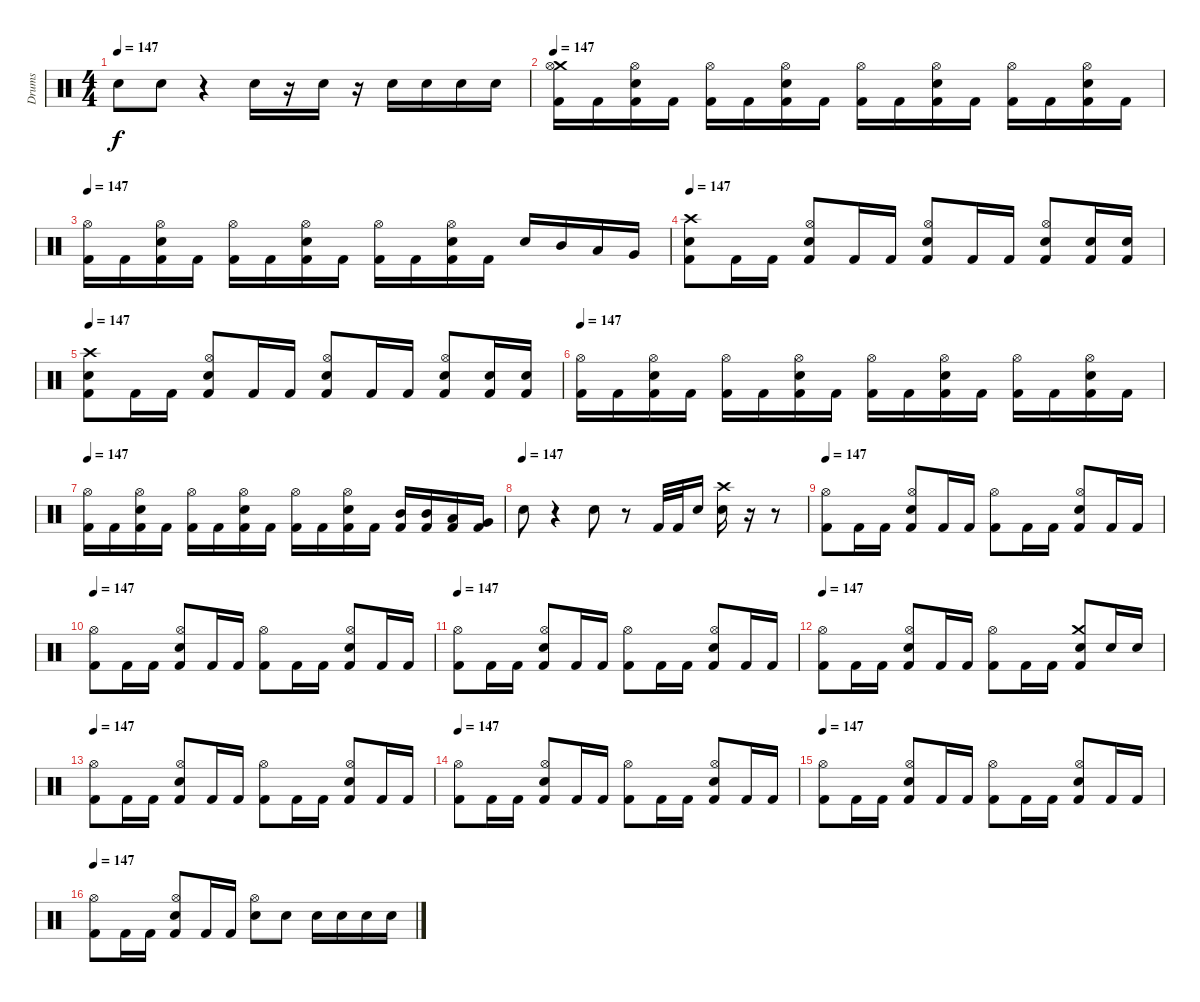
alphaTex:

\track ("Drums" "Drums") {instrument percussion}
\staff {score}
\articulation defaults
\ts (4 4)
\tempo 147
\clef neutral
\ks c "Electric Snare (hit)".8{dy f} "Electric Snare (hit)".8
r.4 "Electric Snare (hit)".16 r.16 "Electric Snare (hit)".16 r.16 "Electric Snare (hit)".16 "Electric Snare (hit)".16 "Electric Snare (hit)".16 "Electric Snare (hit)".16 |
\tempo 147
("Crash medium (hit)" "Hi-Hat (open)" "Kick (hit) 2").16 "Kick (hit) 2".16 ("Hi-Hat (open)" "Electric Snare (hit)" "Kick (hit) 2").16 "Kick (hit) 2".16 ("Hi-Hat (open)" "Kick (hit) 2").16 "Kick (hit) 2".16 ("Hi-Hat (open)" "Electric Snare (hit)" "Kick (hit) 2").16 "Kick (hit) 2".16 ("Hi-Hat (open)" "Kick (hit) 2").16 "Kick (hit) 2".16 ("Hi-Hat (open)" "Electric Snare (hit)" "Kick (hit) 2").16 "Kick (hit) 2".16 ("Hi-Hat (open)" "Kick (hit) 2").16 "Kick (hit) 2".16 ("Hi-Hat (open)" "Electric Snare (hit)" "Kick (hit) 2").16 "Kick (hit) 2".16 |
\tempo 147
("Hi-Hat (open)" "Kick (hit) 2").16 "Kick (hit) 2".16 ("Hi-Hat (open)" "Electric Snare (hit)" "Kick (hit) 2").16 "Kick (hit) 2".16 ("Hi-Hat (open)" "Kick (hit) 2").16 "Kick (hit) 2".16 ("Hi-Hat (open)" "Electric Snare (hit)" "Kick (hit) 2").16 "Kick (hit) 2".16 ("Hi-Hat (open)" "Kick (hit) 2").16 "Kick (hit) 2".16 ("Hi-Hat (open)" "Electric Snare (hit)" "Kick (hit) 2").16 "Kick (hit) 2".16 "Snare (hit) 2".16 "Mid Tom (hit)".16 "Low Tom (hit)".16 "Very Low Tom (hit)".16 |
\tempo 147
("Crash high (hit)" "Electric Snare (hit)" "Kick (hit) 2").8 "Kick (hit) 2".16 "Kick (hit) 2".16 ("Hi-Hat (open)" "Electric Snare (hit)" "Kick (hit) 2").8 "Kick (hit) 2".16 "Kick (hit) 2".16 ("Hi-Hat (open)" "Electric Snare (hit)" "Kick (hit) 2").8 "Kick (hit) 2".16 "Kick (hit) 2".16 ("Hi-Hat (open)" "Electric Snare (hit)" "Kick (hit) 2").8 ("Electric Snare (hit)" "Kick (hit) 2").16 ("Electric Snare (hit)" "Kick (hit) 2").16 |
\tempo 147
("Crash high (hit)" "Electric Snare (hit)" "Kick (hit) 2").8 "Kick (hit) 2".16 "Kick (hit) 2".16 ("Hi-Hat (open)" "Electric Snare (hit)" "Kick (hit) 2").8 "Kick (hit) 2".16 "Kick (hit) 2".16 ("Hi-Hat (open)" "Electric Snare (hit)" "Kick (hit) 2").8 "Kick (hit) 2".16 "Kick (hit) 2".16 ("Hi-Hat (open)" "Electric Snare (hit)" "Kick (hit) 2").8 ("Electric Snare (hit)" "Kick (hit) 2").16 ("Electric Snare (hit)" "Kick (hit) 2").16 |
\tempo 147
("Hi-Hat (open)" "Kick (hit) 2").16 "Kick (hit) 2".16 ("Hi-Hat (open)" "Electric Snare (hit)" "Kick (hit) 2").16 "Kick (hit) 2".16 ("Hi-Hat (open)" "Kick (hit) 2").16 "Kick (hit) 2".16 ("Hi-Hat (open)" "Electric Snare (hit)" "Kick (hit) 2").16 "Kick (hit) 2".16 ("Hi-Hat (open)" "Kick (hit) 2").16 "Kick (hit) 2".16 ("Hi-Hat (open)" "Electric Snare (hit)" "Kick (hit) 2").16 "Kick (hit) 2".16 ("Hi-Hat (open)" "Kick (hit) 2").16 "Kick (hit) 2".16 ("Hi-Hat (open)" "Electric Snare (hit)" "Kick (hit) 2").16 "Kick (hit) 2".16 |
\tempo 147
("Hi-Hat (open)" "Kick (hit) 2").16 "Kick (hit) 2".16 ("Hi-Hat (open)" "Electric Snare (hit)" "Kick (hit) 2").16 "Kick (hit) 2".16 ("Hi-Hat (open)" "Kick (hit) 2").16 "Kick (hit) 2".16 ("Hi-Hat (open)" "Electric Snare (hit)" "Kick (hit) 2").16 "Kick (hit) 2".16 ("Hi-Hat (open)" "Kick (hit) 2").16 "Kick (hit) 2".16 ("Hi-Hat (open)" "Electric Snare (hit)" "Kick (hit) 2").16 "Kick (hit) 2".16 ("Mid Tom (hit)" "Kick (hit) 2").16 ("Mid Tom (hit)" "Kick (hit) 2").16 ("Low Tom (hit)" "Kick (hit) 2").16 ("Very Low Tom (hit)" "Kick (hit) 2").16 |
\tempo (147)
"Electric Snare (hit)".8 r.4 "Electric Snare (hit)".8 r.8 "Kick (hit) 2".32 "Kick (hit) 2".32 "Snare (hit)".16 ("Crash high (hit)" "Electric Snare (hit)").16 r.16 r.8 |
\tempo 147
("Hi-Hat (open)" "Kick (hit) 2").8 "Kick (hit) 2".16 "Kick (hit) 2".16 ("Hi-Hat (open)" "Electric Snare (hit)" "Kick (hit) 2").8 "Kick (hit) 2".16 "Kick (hit) 2".16 ("Hi-Hat (open)" "Kick (hit) 2").8 "Kick (hit) 2".16 "Kick (hit) 2".16 ("Hi-Hat (open)" "Electric Snare (hit)" "Kick (hit) 2").8 "Kick (hit) 2".16 "Kick (hit) 2".16 |
\tempo 147
("Hi-Hat (open)" "Kick (hit) 2").8 "Kick (hit) 2".16 "Kick (hit) 2".16 ("Hi-Hat (open)" "Electric Snare (hit)" "Kick (hit) 2").8 "Kick (hit) 2".16 "Kick (hit) 2".16 ("Hi-Hat (open)" "Kick (hit) 2").8 "Kick (hit) 2".16 "Kick (hit) 2".16 ("Hi-Hat (open)" "Electric Snare (hit)" "Kick (hit) 2").8 "Kick (hit) 2".16 "Kick (hit) 2".16 |
\tempo 147
("Hi-Hat (open)" "Kick (hit) 2").8 "Kick (hit) 2".16 "Kick (hit) 2".16 ("Hi-Hat (open)" "Electric Snare (hit)" "Kick (hit) 2").8 "Kick (hit) 2".16 "Kick (hit) 2".16 ("Hi-Hat (open)" "Kick (hit) 2").8 "Kick (hit) 2".16 "Kick (hit) 2".16 ("Hi-Hat (open)" "Electric Snare (hit)" "Kick (hit) 2").8 "Kick (hit) 2".16 "Kick (hit) 2".16 |
\tempo 147
("Hi-Hat (open)" "Kick (hit) 2").8 "Kick (hit) 2".16 "Kick (hit) 2".16 ("Hi-Hat (open)" "Electric Snare (hit)" "Kick (hit) 2").8 "Kick (hit) 2".16 "Kick (hit) 2".16 ("Hi-Hat (open)" "Kick (hit) 2").8 "Kick (hit) 2".16 "Kick (hit) 2".16 ("Crash medium (hit)" "Electric Snare (hit)" "Kick (hit) 2").8 "Electric Snare (hit)".16 "Electric Snare (hit)".16 |
\tempo 147
("Hi-Hat (open)" "Kick (hit) 2").8 "Kick (hit) 2".16 "Kick (hit) 2".16 ("Hi-Hat (open)" "Electric Snare (hit)" "Kick (hit) 2").8 "Kick (hit) 2".16 "Kick (hit) 2".16 ("Hi-Hat (open)" "Kick (hit) 2").8 "Kick (hit) 2".16 "Kick (hit) 2".16 ("Hi-Hat (open)" "Electric Snare (hit)" "Kick (hit) 2").8 "Kick (hit) 2".16 "Kick (hit) 2".16 |
\tempo 147
("Hi-Hat (open)" "Kick (hit) 2").8 "Kick (hit) 2".16 "Kick (hit) 2".16 ("Hi-Hat (open)" "Electric Snare (hit)" "Kick (hit) 2").8 "Kick (hit) 2".16 "Kick (hit) 2".16 ("Hi-Hat (open)" "Kick (hit) 2").8 "Kick (hit) 2".16 "Kick (hit) 2".16 ("Hi-Hat (open)" "Electric Snare (hit)" "Kick (hit) 2").8 "Kick (hit) 2".16 "Kick (hit) 2".16 |
\tempo 147
("Hi-Hat (open)" "Kick (hit) 2").8 "Kick (hit) 2".16 "Kick (hit) 2".16 ("Hi-Hat (open)" "Electric Snare (hit)" "Kick (hit) 2").8 "Kick (hit) 2".16 "Kick (hit) 2".16 ("Hi-Hat (open)" "Kick (hit) 2").8 "Kick (hit) 2".16 "Kick (hit) 2".16 ("Hi-Hat (open)" "Electric Snare (hit)" "Kick (hit) 2").8 "Kick (hit) 2".16 "Kick (hit) 2".16 |
\tempo 147
("Hi-Hat (open)" "Kick (hit) 2").8 "Kick (hit) 2".16 "Kick (hit) 2".16 ("Hi-Hat (open)" "Electric Snare (hit)" "Kick (hit) 2").8 "Kick (hit) 2".16 "Kick (hit) 2".16 ("Hi-Hat (open)" "Snare (hit) 2").8 "Snare (hit) 2".8 "Snare (hit) 2".16 "Snare (hit) 2".16 "Snare (hit) 2".16 "Snare (hit) 2".16
